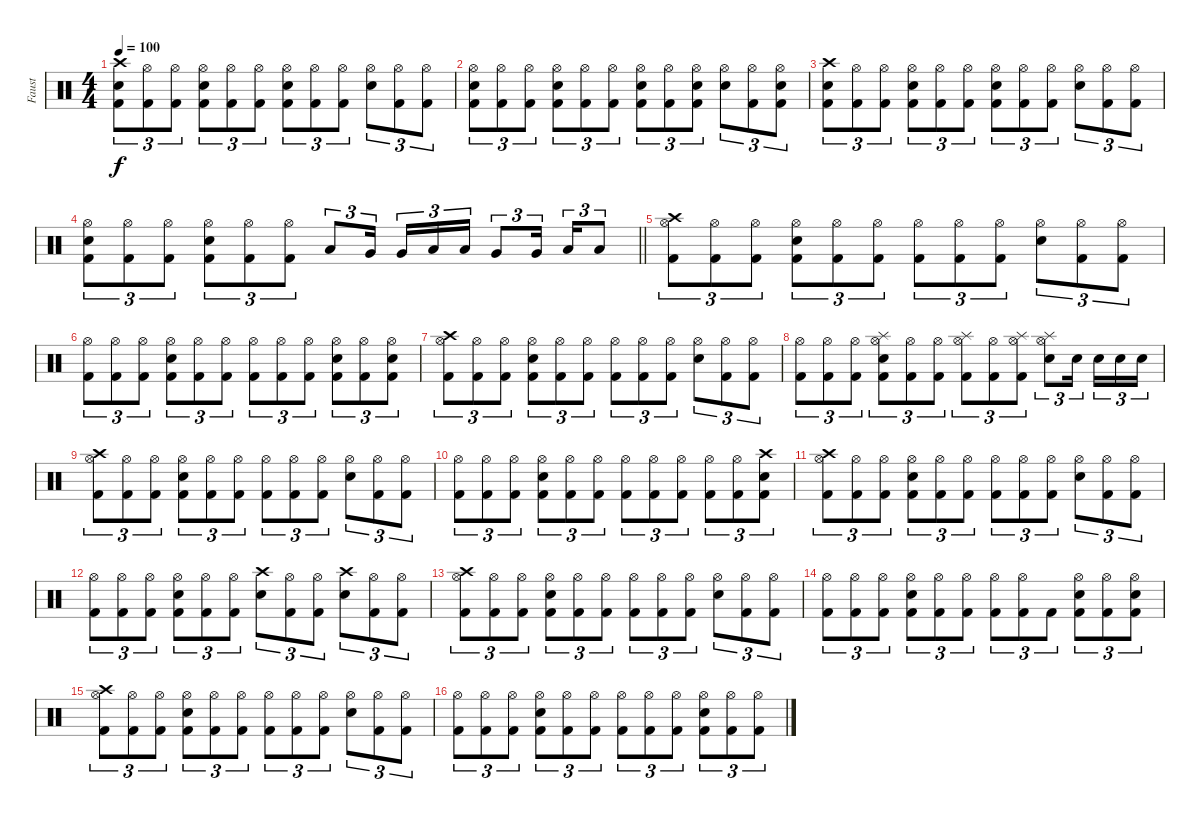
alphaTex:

\track ("Faust" "Faust") {instrument percussion}
\staff {score}
\articulation defaults
\ts (4 4)
\tempo 100
\clef neutral
\ks c
("Crash high (hit)" "Snare (hit) 2" "Kick (hit) 2").8{tu (3 2) dy f} ("Hi-Hat (open)" "Kick (hit) 2").8{tu (3 2)} ("Hi-Hat (open)" "Kick (hit) 2").8{tu (3 2)} ("Snare (hit) 2" "Hi-Hat (open)" "Kick (hit) 2").8{tu (3 2)} ("Hi-Hat (open)" "Kick (hit) 2").8{tu (3 2)} ("Hi-Hat (open)" "Kick (hit) 2").8{tu (3 2)} ("Snare (hit) 2" "Hi-Hat (open)" "Kick (hit) 2").8{tu (3 2)} ("Hi-Hat (open)" "Kick (hit) 2").8{tu (3 2)} ("Hi-Hat (open)" "Kick (hit) 2").8{tu (3 2)} ("Snare (hit) 2" "Hi-Hat (open)").8{tu (3 2)} ("Hi-Hat (open)" "Kick (hit) 2").8{tu (3 2)} ("Hi-Hat (open)" "Kick (hit) 2").8{tu (3 2)} |
("Snare (hit) 2" "Hi-Hat (open)" "Kick (hit) 2").8{tu (3 2)} ("Hi-Hat (open)" "Kick (hit) 2").8{tu (3 2)} ("Hi-Hat (open)" "Kick (hit) 2").8{tu (3 2)} ("Snare (hit) 2" "Hi-Hat (open)" "Kick (hit) 2").8{tu (3 2)} ("Hi-Hat (open)" "Kick (hit) 2").8{tu (3 2)} ("Hi-Hat (open)" "Kick (hit) 2").8{tu (3 2)} ("Snare (hit) 2" "Hi-Hat (open)" "Kick (hit) 2").8{tu (3 2)} ("Hi-Hat (open)" "Kick (hit) 2").8{tu (3 2)} ("Snare (hit) 2" "Hi-Hat (open)" "Kick (hit) 2").8{tu (3 2)} ("Snare (hit) 2" "Hi-Hat (open)").8{tu (3 2)} ("Hi-Hat (open)" "Kick (hit) 2").8{tu (3 2)} ("Snare (hit) 2" "Hi-Hat (open)" "Kick (hit) 2").8{tu (3 2)} |
("Crash high (hit)" "Snare (hit) 2" "Kick (hit) 2").8{tu (3 2)} ("Hi-Hat (open)" "Kick (hit) 2").8{tu (3 2)} ("Hi-Hat (open)" "Kick (hit) 2").8{tu (3 2)} ("Snare (hit) 2" "Hi-Hat (open)" "Kick (hit) 2").8{tu (3 2)} ("Hi-Hat (open)" "Kick (hit) 2").8{tu (3 2)} ("Hi-Hat (open)" "Kick (hit) 2").8{tu (3 2)} ("Snare (hit) 2" "Hi-Hat (open)" "Kick (hit) 2").8{tu (3 2)} ("Hi-Hat (open)" "Kick (hit) 2").8{tu (3 2)} ("Hi-Hat (open)" "Kick (hit) 2").8{tu (3 2)} ("Snare (hit) 2" "Hi-Hat (open)").8{tu (3 2)} ("Hi-Hat (open)" "Kick (hit) 2").8{tu (3 2)} ("Hi-Hat (open)" "Kick (hit) 2").8{tu (3 2)} |
\barLineRight lightlight
("Snare (hit) 2" "Hi-Hat (open)" "Kick (hit) 2").8{tu (3 2)} ("Hi-Hat (open)" "Kick (hit) 2").8{tu (3 2)} ("Hi-Hat (open)" "Kick (hit) 2").8{tu (3 2)} ("Snare (hit) 2" "Hi-Hat (open)" "Kick (hit) 2").8{tu (3 2)} ("Hi-Hat (open)" "Kick (hit) 2").8{tu (3 2)} ("Hi-Hat (open)" "Kick (hit) 2").8{tu (3 2)} "Low Tom (hit)".8{tu (3 2)} "Very Low Tom (hit)".16{tu (3 2) beam splitsecondary} "Very Low Tom (hit)".16{tu (3 2)} "Low Tom (hit)".16{tu (3 2)} "Low Tom (hit)".16{tu (3 2)} "Very Low Tom (hit)".8{tu (3 2)} "Very Low Tom (hit)".16{tu (3 2) beam splitsecondary} "Low Floor Tom (hit)".16{tu (3 2)} "Low Floor Tom (hit)".8{tu (3 2)} |
("Crash high (hit)" "Hi-Hat (open)" "Kick (hit) 2").8{tu (3 2)} ("Hi-Hat (open)" "Kick (hit) 2").8{tu (3 2)} ("Hi-Hat (open)" "Kick (hit) 2").8{tu (3 2)} ("Snare (hit) 2" "Hi-Hat (open)" "Kick (hit) 2").8{tu (3 2)} ("Hi-Hat (open)" "Kick (hit) 2").8{tu (3 2)} ("Hi-Hat (open)" "Kick (hit) 2").8{tu (3 2)} ("Hi-Hat (open)" "Kick (hit) 2").8{tu (3 2)} ("Hi-Hat (open)" "Kick (hit) 2").8{tu (3 2)} ("Hi-Hat (open)" "Kick (hit) 2").8{tu (3 2)} ("Snare (hit) 2" "Hi-Hat (open)").8{tu (3 2)} ("Hi-Hat (open)" "Kick (hit) 2").8{tu (3 2)} ("Hi-Hat (open)" "Kick (hit) 2").8{tu (3 2)} |
("Hi-Hat (open)" "Kick (hit) 2").8{tu (3 2)} ("Hi-Hat (open)" "Kick (hit) 2").8{tu (3 2)} ("Hi-Hat (open)" "Kick (hit) 2").8{tu (3 2)} ("Snare (hit) 2" "Hi-Hat (open)" "Kick (hit) 2").8{tu (3 2)} ("Hi-Hat (open)" "Kick (hit) 2").8{tu (3 2)} ("Hi-Hat (open)" "Kick (hit) 2").8{tu (3 2)} ("Hi-Hat (open)" "Kick (hit) 2").8{tu (3 2)} ("Hi-Hat (open)" "Kick (hit) 2").8{tu (3 2)} ("Hi-Hat (open)" "Kick (hit) 2").8{tu (3 2)} ("Snare (hit) 2" "Hi-Hat (open)" "Kick (hit) 2").8{tu (3 2)} ("Hi-Hat (open)" "Kick (hit) 2").8{tu (3 2)} ("Snare (hit) 2" "Hi-Hat (open)" "Kick (hit) 2").8{tu (3 2)} |
("Crash high (hit)" "Hi-Hat (open)" "Kick (hit) 2").8{tu (3 2)} ("Hi-Hat (open)" "Kick (hit) 2").8{tu (3 2)} ("Hi-Hat (open)" "Kick (hit) 2").8{tu (3 2)} ("Snare (hit) 2" "Hi-Hat (open)" "Kick (hit) 2").8{tu (3 2)} ("Hi-Hat (open)" "Kick (hit) 2").8{tu (3 2)} ("Hi-Hat (open)" "Kick (hit) 2").8{tu (3 2)} ("Hi-Hat (open)" "Kick (hit) 2").8{tu (3 2)} ("Hi-Hat (open)" "Kick (hit) 2").8{tu (3 2)} ("Hi-Hat (open)" "Kick (hit) 2").8{tu (3 2)} ("Snare (hit) 2" "Hi-Hat (open)").8{tu (3 2)} ("Hi-Hat (open)" "Kick (hit) 2").8{tu (3 2)} ("Hi-Hat (open)" "Kick (hit) 2").8{tu (3 2)} |
("Hi-Hat (open)" "Kick (hit) 2").8{tu (3 2)} ("Hi-Hat (open)" "Kick (hit) 2").8{tu (3 2)} ("Hi-Hat (open)" "Kick (hit) 2").8{tu (3 2)} ("Splash (hit)" "Snare (hit) 2" "Hi-Hat (open)" "Kick (hit) 2").8{tu (3 2)} ("Hi-Hat (open)" "Kick (hit) 2").8{tu (3 2)} ("Hi-Hat (open)" "Kick (hit) 2").8{tu (3 2)} ("Splash (hit)" "Hi-Hat (open)" "Kick (hit) 2").8{tu (3 2)} ("Hi-Hat (open)" "Kick (hit) 2").8{tu (3 2)} ("Splash (hit)" "Hi-Hat (open)" "Kick (hit) 2").8{tu (3 2)} ("Splash (hit)" "Snare (hit) 2" "Hi-Hat (open)").8{tu (3 2)} "Snare (hit) 2".16{tu (3 2) beam splitsecondary} "Snare (hit) 2".16{tu (3 2)} "Snare (hit) 2".16{tu (3 2)} "Snare (hit) 2".16{tu (3 2)} |
("Crash high (hit)" "Hi-Hat (open)" "Kick (hit) 2").8{tu (3 2)} ("Hi-Hat (open)" "Kick (hit) 2").8{tu (3 2)} ("Hi-Hat (open)" "Kick (hit) 2").8{tu (3 2)} ("Snare (hit) 2" "Hi-Hat (open)" "Kick (hit) 2").8{tu (3 2)} ("Hi-Hat (open)" "Kick (hit) 2").8{tu (3 2)} ("Hi-Hat (open)" "Kick (hit) 2").8{tu (3 2)} ("Hi-Hat (open)" "Kick (hit) 2").8{tu (3 2)} ("Hi-Hat (open)" "Kick (hit) 2").8{tu (3 2)} ("Hi-Hat (open)" "Kick (hit) 2").8{tu (3 2)} ("Snare (hit) 2" "Hi-Hat (open)").8{tu (3 2)} ("Hi-Hat (open)" "Kick (hit) 2").8{tu (3 2)} ("Hi-Hat (open)" "Kick (hit) 2").8{tu (3 2)} |
("Hi-Hat (open)" "Kick (hit) 2").8{tu (3 2)} ("Hi-Hat (open)" "Kick (hit) 2").8{tu (3 2)} ("Hi-Hat (open)" "Kick (hit) 2").8{tu (3 2)} ("Snare (hit) 2" "Hi-Hat (open)" "Kick (hit) 2").8{tu (3 2)} ("Hi-Hat (open)" "Kick (hit) 2").8{tu (3 2)} ("Hi-Hat (open)" "Kick (hit) 2").8{tu (3 2)} ("Hi-Hat (open)" "Kick (hit) 2").8{tu (3 2)} ("Hi-Hat (open)" "Kick (hit) 2").8{tu (3 2)} ("Hi-Hat (open)" "Kick (hit) 2").8{tu (3 2)} ("Hi-Hat (open)" "Kick (hit) 2").8{tu (3 2)} ("Hi-Hat (open)" "Kick (hit) 2").8{tu (3 2)} ("Crash high (hit)" "Snare (hit) 2" "Kick (hit) 2").8{tu (3 2)} |
("Crash high (hit)" "Hi-Hat (open)" "Kick (hit) 2").8{tu (3 2)} ("Hi-Hat (open)" "Kick (hit) 2").8{tu (3 2)} ("Hi-Hat (open)" "Kick (hit) 2").8{tu (3 2)} ("Snare (hit) 2" "Hi-Hat (open)" "Kick (hit) 2").8{tu (3 2)} ("Hi-Hat (open)" "Kick (hit) 2").8{tu (3 2)} ("Hi-Hat (open)" "Kick (hit) 2").8{tu (3 2)} ("Hi-Hat (open)" "Kick (hit) 2").8{tu (3 2)} ("Hi-Hat (open)" "Kick (hit) 2").8{tu (3 2)} ("Hi-Hat (open)" "Kick (hit) 2").8{tu (3 2)} ("Snare (hit) 2" "Hi-Hat (open)").8{tu (3 2)} ("Hi-Hat (open)" "Kick (hit) 2").8{tu (3 2)} ("Hi-Hat (open)" "Kick (hit) 2").8{tu (3 2)} |
("Hi-Hat (open)" "Kick (hit) 2").8{tu (3 2)} ("Hi-Hat (open)" "Kick (hit) 2").8{tu (3 2)} ("Hi-Hat (open)" "Kick (hit) 2").8{tu (3 2)} ("Snare (hit) 2" "Hi-Hat (open)" "Kick (hit) 2").8{tu (3 2)} ("Hi-Hat (open)" "Kick (hit) 2").8{tu (3 2)} ("Hi-Hat (open)" "Kick (hit) 2").8{tu (3 2)} ("Crash high (hit)" "Snare (hit) 2").8{tu (3 2)} ("Hi-Hat (open)" "Kick (hit) 2").8{tu (3 2)} ("Hi-Hat (open)" "Kick (hit) 2").8{tu (3 2)} ("Crash high (hit)" "Snare (hit) 2").8{tu (3 2)} ("Hi-Hat (open)" "Kick (hit) 2").8{tu (3 2)} ("Hi-Hat (open)" "Kick (hit) 2").8{tu (3 2)} |
("Crash high (hit)" "Hi-Hat (open)" "Kick (hit) 2").8{tu (3 2)} ("Hi-Hat (open)" "Kick (hit) 2").8{tu (3 2)} ("Hi-Hat (open)" "Kick (hit) 2").8{tu (3 2)} ("Snare (hit) 2" "Hi-Hat (open)" "Kick (hit) 2").8{tu (3 2)} ("Hi-Hat (open)" "Kick (hit) 2").8{tu (3 2)} ("Hi-Hat (open)" "Kick (hit) 2").8{tu (3 2)} ("Hi-Hat (open)" "Kick (hit) 2").8{tu (3 2)} ("Hi-Hat (open)" "Kick (hit) 2").8{tu (3 2)} ("Hi-Hat (open)" "Kick (hit) 2").8{tu (3 2)} ("Snare (hit) 2" "Hi-Hat (open)").8{tu (3 2)} ("Hi-Hat (open)" "Kick (hit) 2").8{tu (3 2)} ("Hi-Hat (open)" "Kick (hit) 2").8{tu (3 2)} |
("Hi-Hat (open)" "Kick (hit) 2").8{tu (3 2)} ("Hi-Hat (open)" "Kick (hit) 2").8{tu (3 2)} ("Hi-Hat (open)" "Kick (hit) 2").8{tu (3 2)} ("Snare (hit) 2" "Hi-Hat (open)" "Kick (hit) 2").8{tu (3 2)} ("Hi-Hat (open)" "Kick (hit) 2").8{tu (3 2)} ("Hi-Hat (open)" "Kick (hit) 2").8{tu (3 2)} ("Hi-Hat (open)" "Kick (hit) 2").8{tu (3 2)} ("Hi-Hat (open)" "Kick (hit) 2").8{tu (3 2)} "Kick (hit) 2".8{tu (3 2)} ("Snare (hit) 2" "Hi-Hat (open)" "Kick (hit) 2").8{tu (3 2)} ("Hi-Hat (open)" "Kick (hit) 2").8{tu (3 2)} ("Snare (hit) 2" "Hi-Hat (open)" "Kick (hit) 2").8{tu (3 2)} |
("Crash high (hit)" "Hi-Hat (open)" "Kick (hit) 2").8{tu (3 2)} ("Hi-Hat (open)" "Kick (hit) 2").8{tu (3 2)} ("Hi-Hat (open)" "Kick (hit) 2").8{tu (3 2)} ("Snare (hit) 2" "Hi-Hat (open)" "Kick (hit) 2").8{tu (3 2)} ("Hi-Hat (open)" "Kick (hit) 2").8{tu (3 2)} ("Hi-Hat (open)" "Kick (hit) 2").8{tu (3 2)} ("Hi-Hat (open)" "Kick (hit) 2").8{tu (3 2)} ("Hi-Hat (open)" "Kick (hit) 2").8{tu (3 2)} ("Hi-Hat (open)" "Kick (hit) 2").8{tu (3 2)} ("Snare (hit) 2" "Hi-Hat (open)").8{tu (3 2)} ("Hi-Hat (open)" "Kick (hit) 2").8{tu (3 2)} ("Hi-Hat (open)" "Kick (hit) 2").8{tu (3 2)} |
("Hi-Hat (open)" "Kick (hit) 2").8{tu (3 2)} ("Hi-Hat (open)" "Kick (hit) 2").8{tu (3 2)} ("Hi-Hat (open)" "Kick (hit) 2").8{tu (3 2)} ("Snare (hit) 2" "Hi-Hat (open)" "Kick (hit) 2").8{tu (3 2)} ("Hi-Hat (open)" "Kick (hit) 2").8{tu (3 2)} ("Hi-Hat (open)" "Kick (hit) 2").8{tu (3 2)} ("Hi-Hat (open)" "Kick (hit) 2").8{tu (3 2)} ("Hi-Hat (open)" "Kick (hit) 2").8{tu (3 2)} ("Hi-Hat (open)" "Kick (hit) 2").8{tu (3 2)} ("Snare (hit) 2" "Hi-Hat (open)" "Kick (hit) 2").8{tu (3 2)} ("Hi-Hat (open)" "Kick (hit) 2").8{tu (3 2)} ("Hi-Hat (open)" "Kick (hit) 2").8{tu (3 2)}
